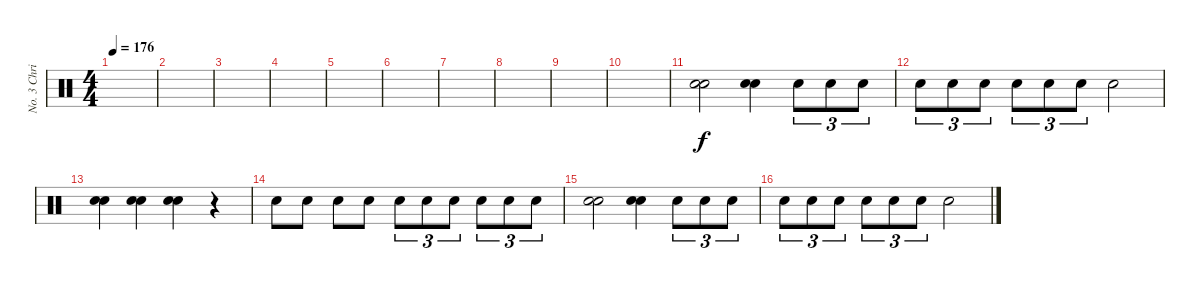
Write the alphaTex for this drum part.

\track ("No. 3 Chris" "No. 3 Chri") {instrument percussion}
\staff {score}
\articulation defaults
\ts (4 4)
\tempo 176
\clef neutral
\ks c
|
|
|
|
|
|
|
|
|
|
("Electric Snare (hit)" "Electric Snare (hit)").2 ("Electric Snare (hit)" "Electric Snare (hit)").4 "Electric Snare (hit)".8{tu (3 2)} "Electric Snare (hit)".8{tu (3 2)} "Electric Snare (hit)".8{tu (3 2)} |
"Electric Snare (hit)".8{tu (3 2)} "Electric Snare (hit)".8{tu (3 2)} "Electric Snare (hit)".8{tu (3 2)} "Electric Snare (hit)".8{tu (3 2)} "Electric Snare (hit)".8{tu (3 2)} "Electric Snare (hit)".8{tu (3 2)} "Electric Snare (hit)".2 |
("Electric Snare (hit)" "Electric Snare (hit)").4 ("Electric Snare (hit)" "Electric Snare (hit)").4 ("Electric Snare (hit)" "Electric Snare (hit)").4 r.4 |
"Electric Snare (hit)".8 "Electric Snare (hit)".8 "Electric Snare (hit)".8 "Electric Snare (hit)".8 "Electric Snare (hit)".8{tu (3 2)} "Electric Snare (hit)".8{tu (3 2)} "Electric Snare (hit)".8{tu (3 2)} "Electric Snare (hit)".8{tu (3 2)} "Electric Snare (hit)".8{tu (3 2)} "Electric Snare (hit)".8{tu (3 2)} |
("Electric Snare (hit)" "Electric Snare (hit)").2 ("Electric Snare (hit)" "Electric Snare (hit)").4 "Electric Snare (hit)".8{tu (3 2)} "Electric Snare (hit)".8{tu (3 2)} "Electric Snare (hit)".8{tu (3 2)} |
"Electric Snare (hit)".8{tu (3 2)} "Electric Snare (hit)".8{tu (3 2)} "Electric Snare (hit)".8{tu (3 2)} "Electric Snare (hit)".8{tu (3 2)} "Electric Snare (hit)".8{tu (3 2)} "Electric Snare (hit)".8{tu (3 2)} "Electric Snare (hit)".2
